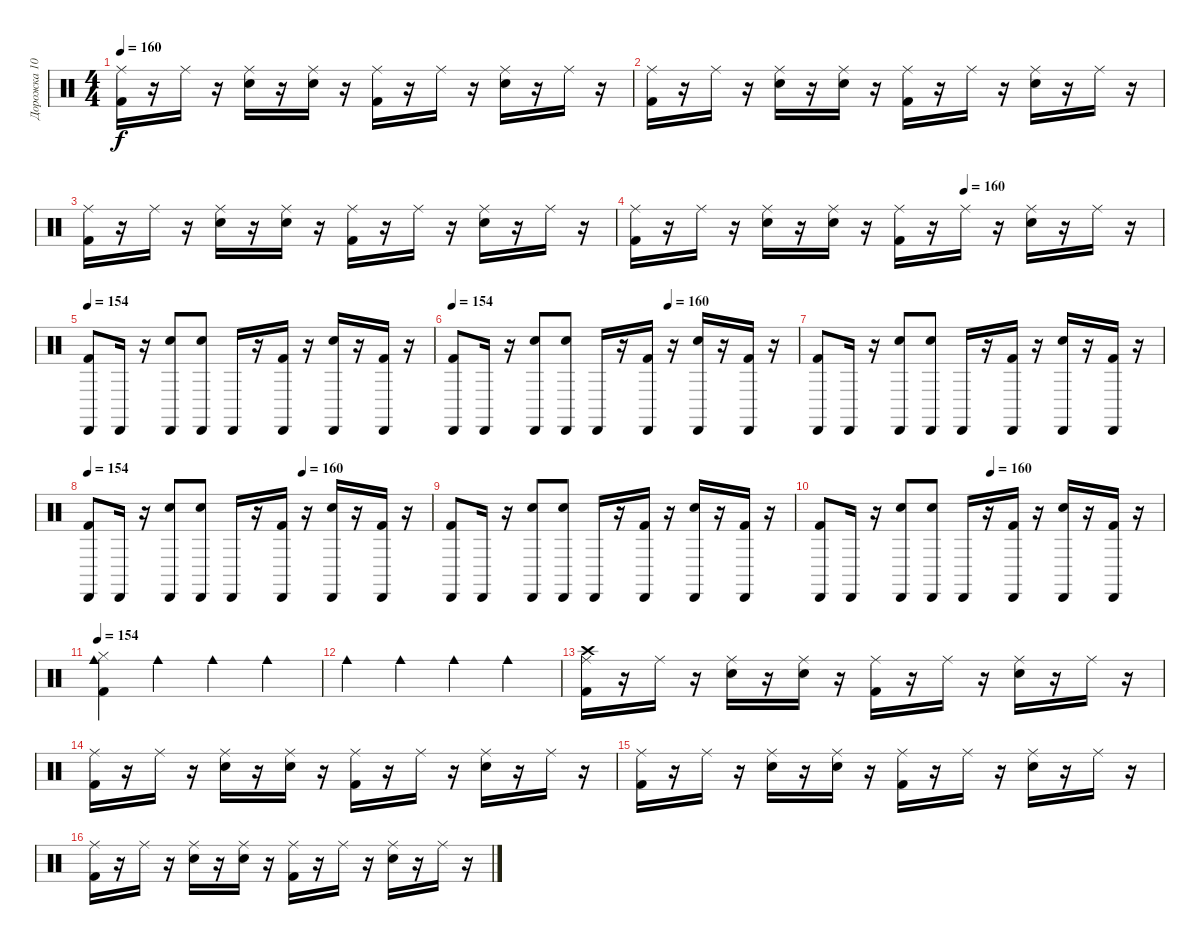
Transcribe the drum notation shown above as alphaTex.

\track ("Дорожка 10" "Дорожка 10") {instrument percussion}
\staff {score}
\articulation defaults
\ts (4 4)
\tempo 160
\clef neutral
\ks c
("Ride (middle)" "Kick (hit) 2").16{dy f} r.16 "Ride (middle)".16 r.16 ("Ride (middle)" "Electric Snare (hit)").16 r.16 ("Ride (middle)" "Electric Snare (hit)").16 r.16 ("Ride (middle)" "Kick (hit) 2").16 r.16 "Ride (middle)".16 r.16 ("Ride (middle)" "Electric Snare (hit)").16 r.16 "Ride (middle)".16 r.16 |
("Ride (middle)" "Kick (hit) 2").16 r.16 "Ride (middle)".16 r.16 ("Ride (middle)" "Electric Snare (hit)").16 r.16 ("Ride (middle)" "Electric Snare (hit)").16 r.16 ("Ride (middle)" "Kick (hit) 2").16 r.16 "Ride (middle)".16 r.16 ("Ride (middle)" "Electric Snare (hit)").16 r.16 "Ride (middle)".16 r.16 |
("Ride (middle)" "Kick (hit) 2").16 r.16 "Ride (middle)".16 r.16 ("Ride (middle)" "Electric Snare (hit)").16 r.16 ("Ride (middle)" "Electric Snare (hit)").16 r.16 ("Ride (middle)" "Kick (hit) 2").16 r.16 "Ride (middle)".16 r.16 ("Ride (middle)" "Electric Snare (hit)").16 r.16 "Ride (middle)".16 r.16 |
\tempo (160 0.625)
("Ride (middle)" "Kick (hit) 2").16 r.16 "Ride (middle)".16 r.16 ("Ride (middle)" "Electric Snare (hit)").16 r.16 ("Ride (middle)" "Electric Snare (hit)").16 r.16 ("Ride (middle)" "Kick (hit) 2").16 r.16 "Ride (middle)".16 r.16 ("Ride (middle)" "Electric Snare (hit)").16 r.16 "Ride (middle)".16 r.16 |
\tempo 154
("Cabasa (hit)" "Kick (hit) 2").8 "Cabasa (hit)".16 r.16 ("Cabasa (hit)" "Electric Snare (hit)").8 ("Cabasa (hit)" "Electric Snare (hit)").8 "Cabasa (hit)".16 r.16 ("Cabasa (hit)" "Kick (hit) 2").16 r.16 ("Cabasa (hit)" "Electric Snare (hit)").16 r.16 ("Cabasa (hit)" "Kick (hit) 2").16 r.16 |
\tempo 154
\tempo (160 0.625)
("Cabasa (hit)" "Kick (hit) 2").8 "Cabasa (hit)".16 r.16 ("Cabasa (hit)" "Electric Snare (hit)").8 ("Cabasa (hit)" "Electric Snare (hit)").8 "Cabasa (hit)".16 r.16 ("Cabasa (hit)" "Kick (hit) 2").16 r.16 ("Cabasa (hit)" "Electric Snare (hit)").16 r.16 ("Cabasa (hit)" "Kick (hit) 2").16 r.16 |
("Cabasa (hit)" "Kick (hit) 2").8 "Cabasa (hit)".16 r.16 ("Cabasa (hit)" "Electric Snare (hit)").8 ("Cabasa (hit)" "Electric Snare (hit)").8 "Cabasa (hit)".16 r.16 ("Cabasa (hit)" "Kick (hit) 2").16 r.16 ("Cabasa (hit)" "Electric Snare (hit)").16 r.16 ("Cabasa (hit)" "Kick (hit) 2").16 r.16 |
\tempo 154
\tempo (160 0.625)
("Kick (hit) 2" "Cabasa (hit)").8 "Cabasa (hit)".16 r.16 ("Electric Snare (hit)" "Cabasa (hit)").8 ("Electric Snare (hit)" "Cabasa (hit)").8 "Cabasa (hit)".16 r.16 ("Kick (hit) 2" "Cabasa (hit)").16 r.16 ("Electric Snare (hit)" "Cabasa (hit)").16 r.16 ("Kick (hit) 2" "Cabasa (hit)").16 r.16 |
("Cabasa (hit)" "Kick (hit) 2").8 "Cabasa (hit)".16 r.16 ("Electric Snare (hit)" "Cabasa (hit)").8 ("Electric Snare (hit)" "Cabasa (hit)").8 "Cabasa (hit)".16 r.16 ("Kick (hit) 2" "Cabasa (hit)").16 r.16 ("Electric Snare (hit)" "Cabasa (hit)").16 r.16 ("Kick (hit) 2" "Cabasa (hit)").16 r.16 |
\tempo (160 0.5)
("Cabasa (hit)" "Kick (hit) 2").8 "Cabasa (hit)".16 r.16 ("Electric Snare (hit)" "Cabasa (hit)").8 ("Electric Snare (hit)" "Cabasa (hit)").8 "Cabasa (hit)".16 r.16 ("Kick (hit) 2" "Cabasa (hit)").16 r.16 ("Electric Snare (hit)" "Cabasa (hit)").16 r.16 ("Kick (hit) 2" "Cabasa (hit)").16 r.16 |
\tempo 154
("Cowbell medium (hit)" "Hi-Hat (closed)" "Kick (hit) 2").4 "Cowbell medium (hit)".4 "Cowbell medium (hit)".4 "Cowbell medium (hit)".4 |
"Cowbell medium (hit)".4 "Cowbell medium (hit)".4 "Cowbell medium (hit)".4 "Cowbell medium (hit)".4 |
("Ride (middle)" "Crash high (hit)" "Kick (hit) 2").16 r.16 "Ride (middle)".16 r.16 ("Ride (middle)" "Electric Snare (hit)").16 r.16 ("Ride (middle)" "Electric Snare (hit)").16 r.16 ("Ride (middle)" "Kick (hit) 2").16 r.16 "Ride (middle)".16 r.16 ("Ride (middle)" "Electric Snare (hit)").16 r.16 "Ride (middle)".16 r.16 |
("Ride (middle)" "Kick (hit) 2").16 r.16 "Ride (middle)".16 r.16 ("Ride (middle)" "Electric Snare (hit)").16 r.16 ("Ride (middle)" "Electric Snare (hit)").16 r.16 ("Ride (middle)" "Kick (hit) 2").16 r.16 "Ride (middle)".16 r.16 ("Ride (middle)" "Electric Snare (hit)").16 r.16 "Ride (middle)".16 r.16 |
("Ride (middle)" "Kick (hit) 2").16 r.16 "Ride (middle)".16 r.16 ("Ride (middle)" "Electric Snare (hit)").16 r.16 ("Ride (middle)" "Electric Snare (hit)").16 r.16 ("Ride (middle)" "Kick (hit) 2").16 r.16 "Ride (middle)".16 r.16 ("Ride (middle)" "Electric Snare (hit)").16 r.16 "Ride (middle)".16 r.16 |
("Ride (middle)" "Kick (hit) 2").16 r.16 "Ride (middle)".16 r.16 ("Ride (middle)" "Electric Snare (hit)").16 r.16 ("Ride (middle)" "Electric Snare (hit)").16 r.16 ("Ride (middle)" "Kick (hit) 2").16 r.16 "Ride (middle)".16 r.16 ("Ride (middle)" "Electric Snare (hit)").16 r.16 "Ride (middle)".16 r.16
